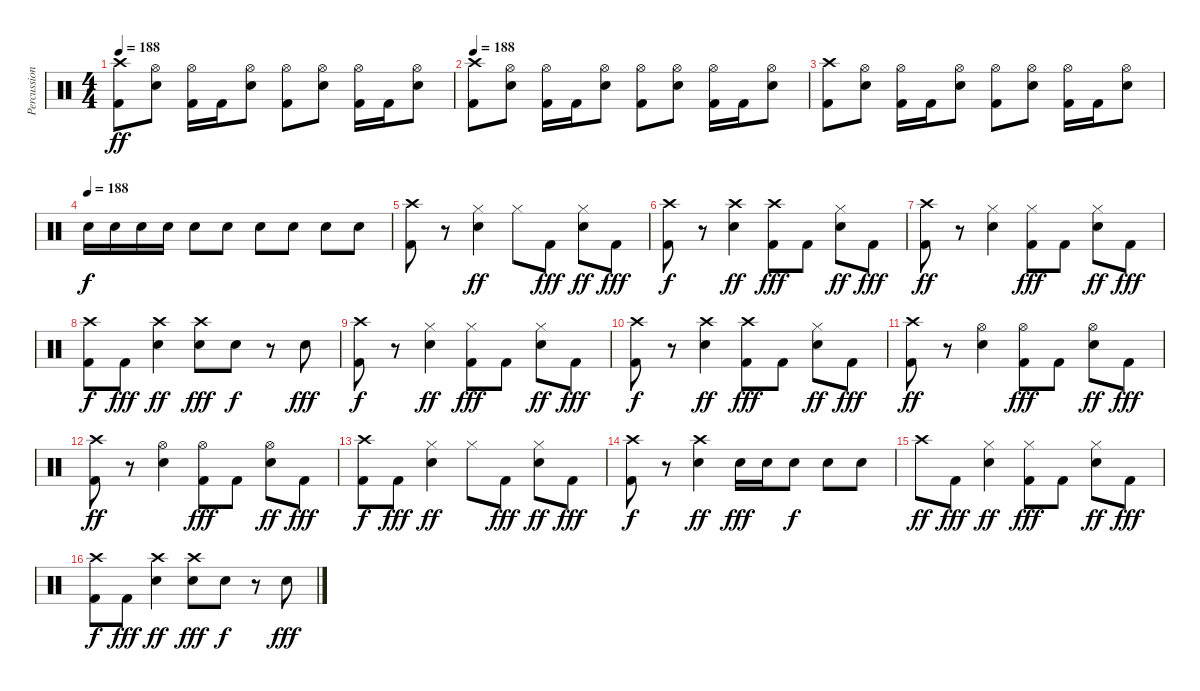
\track ("Percussion" "Percussion") {instrument percussion}
\staff {score}
\articulation defaults
\ts (4 4)
\tempo 188
\clef neutral
\ks c
("Crash high (hit)" "Kick (hit) 2").8{dy ff} ("Hi-Hat (open)" "Snare (hit) 2").8 ("Hi-Hat (open)" "Kick (hit) 2").16 "Kick (hit) 2".16 ("Hi-Hat (open)" "Snare (hit) 2").8 ("Hi-Hat (open)" "Kick (hit) 2").8 ("Hi-Hat (open)" "Snare (hit) 2").8 ("Hi-Hat (open)" "Kick (hit) 2").16 "Kick (hit) 2".16 ("Hi-Hat (open)" "Snare (hit) 2").8 |
\tempo 188
("Crash high (hit)" "Kick (hit) 2").8 ("Hi-Hat (open)" "Snare (hit) 2").8 ("Hi-Hat (open)" "Kick (hit) 2").16 "Kick (hit) 2".16 ("Hi-Hat (open)" "Snare (hit) 2").8 ("Hi-Hat (open)" "Kick (hit) 2").8 ("Hi-Hat (open)" "Snare (hit) 2").8 ("Hi-Hat (open)" "Kick (hit) 2").16 "Kick (hit) 2".16 ("Hi-Hat (open)" "Snare (hit) 2").8 |
("Crash high (hit)" "Kick (hit) 2").8 ("Hi-Hat (open)" "Snare (hit) 2").8 ("Hi-Hat (open)" "Kick (hit) 2").16 "Kick (hit) 2".16 ("Hi-Hat (open)" "Snare (hit) 2").8 ("Hi-Hat (open)" "Kick (hit) 2").8 ("Hi-Hat (open)" "Snare (hit) 2").8 ("Hi-Hat (open)" "Kick (hit) 2").16 "Kick (hit) 2".16 ("Hi-Hat (open)" "Snare (hit) 2").8 |
\tempo (188)
"Snare (hit) 2".16{dy f} "Snare (hit) 2".16 "Snare (hit) 2".16 "Snare (hit) 2".16 "Snare (hit) 2".8 "Snare (hit) 2".8 "Snare (hit) 2".8 "Snare (hit) 2".8 "Snare (hit) 2".8 "Snare (hit) 2".8 |
("Crash high (hit)" "Kick (hit) 2").8 r.8 ("Hi-Hat (closed)" "Snare (hit) 2").4{dy ff} "Hi-Hat (closed)".8 "Kick (hit) 2".8{dy fff} ("Hi-Hat (closed)" "Snare (hit) 2").8{dy ff} "Kick (hit) 2".8{dy fff} |
("Crash high (hit)" "Kick (hit) 2").8{dy f} r.8 ("Crash high (hit)" "Snare (hit) 2").4{dy ff} ("Crash high (hit)" "Kick (hit) 2").8{dy fff} "Kick (hit) 2".8 ("Hi-Hat (closed)" "Snare (hit) 2").8{dy ff} "Kick (hit) 2".8{dy fff} |
("Crash high (hit)" "Kick (hit) 2").8{dy ff} r.8 ("Hi-Hat (closed)" "Snare (hit) 2").4 ("Hi-Hat (closed)" "Kick (hit) 2").8{dy fff} "Kick (hit) 2".8 ("Hi-Hat (closed)" "Snare (hit) 2").8{dy ff} "Kick (hit) 2".8{dy fff} |
("Crash high (hit)" "Kick (hit) 2").8{dy f} "Kick (hit) 2".8{dy fff} ("Crash high (hit)" "Snare (hit) 2").4{dy ff} ("Crash high (hit)" "Snare (hit) 2").8{dy fff} "Snare (hit) 2".8{dy f} r.8 "Snare (hit) 2".8{dy fff} |
("Crash high (hit)" "Kick (hit) 2").8{dy f} r.8 ("Hi-Hat (closed)" "Snare (hit) 2").4{dy ff} ("Hi-Hat (closed)" "Kick (hit) 2").8{dy fff} "Kick (hit) 2".8 ("Hi-Hat (closed)" "Snare (hit) 2").8{dy ff} "Kick (hit) 2".8{dy fff} |
("Crash high (hit)" "Kick (hit) 2").8{dy f} r.8 ("Crash high (hit)" "Snare (hit) 2").4{dy ff} ("Crash high (hit)" "Kick (hit) 2").8{dy fff} "Kick (hit) 2".8 ("Hi-Hat (closed)" "Snare (hit) 2").8{dy ff} "Kick (hit) 2".8{dy fff} |
("Crash high (hit)" "Kick (hit) 2").8{dy ff} r.8 ("Hi-Hat (open)" "Snare (hit) 2").4 ("Hi-Hat (open)" "Kick (hit) 2").8{dy fff} "Kick (hit) 2".8 ("Hi-Hat (open)" "Snare (hit) 2").8{dy ff} "Kick (hit) 2".8{dy fff} |
("Crash high (hit)" "Kick (hit) 2").8{dy ff} r.8 ("Hi-Hat (open)" "Snare (hit) 2").4 ("Hi-Hat (open)" "Kick (hit) 2").8{dy fff} "Kick (hit) 2".8 ("Hi-Hat (open)" "Snare (hit) 2").8{dy ff} "Kick (hit) 2".8{dy fff} |
("Crash high (hit)" "Kick (hit) 2").8{dy f} "Kick (hit) 2".8{dy fff} ("Hi-Hat (closed)" "Snare (hit) 2").4{dy ff} "Hi-Hat (closed)".8 "Kick (hit) 2".8{dy fff} ("Hi-Hat (closed)" "Snare (hit) 2").8{dy ff} "Kick (hit) 2".8{dy fff} |
("Crash high (hit)" "Kick (hit) 2").8{dy f} r.8 ("Crash high (hit)" "Snare (hit) 2").4{dy ff} "Snare (hit) 2".16{dy fff} "Snare (hit) 2".16 "Snare (hit) 2".8{dy f} "Snare (hit) 2".8 "Snare (hit) 2".8 |
"Crash high (hit)".8{dy ff} "Kick (hit) 2".8{dy fff} ("Hi-Hat (closed)" "Snare (hit) 2").4{dy ff} ("Hi-Hat (closed)" "Kick (hit) 2").8{dy fff} "Kick (hit) 2".8 ("Hi-Hat (closed)" "Snare (hit) 2").8{dy ff} "Kick (hit) 2".8{dy fff} |
("Crash high (hit)" "Kick (hit) 2").8{dy f} "Kick (hit) 2".8{dy fff} ("Crash high (hit)" "Snare (hit) 2").4{dy ff} ("Crash high (hit)" "Snare (hit) 2").8{dy fff} "Snare (hit) 2".8{dy f} r.8 "Snare (hit) 2".8{dy fff}
